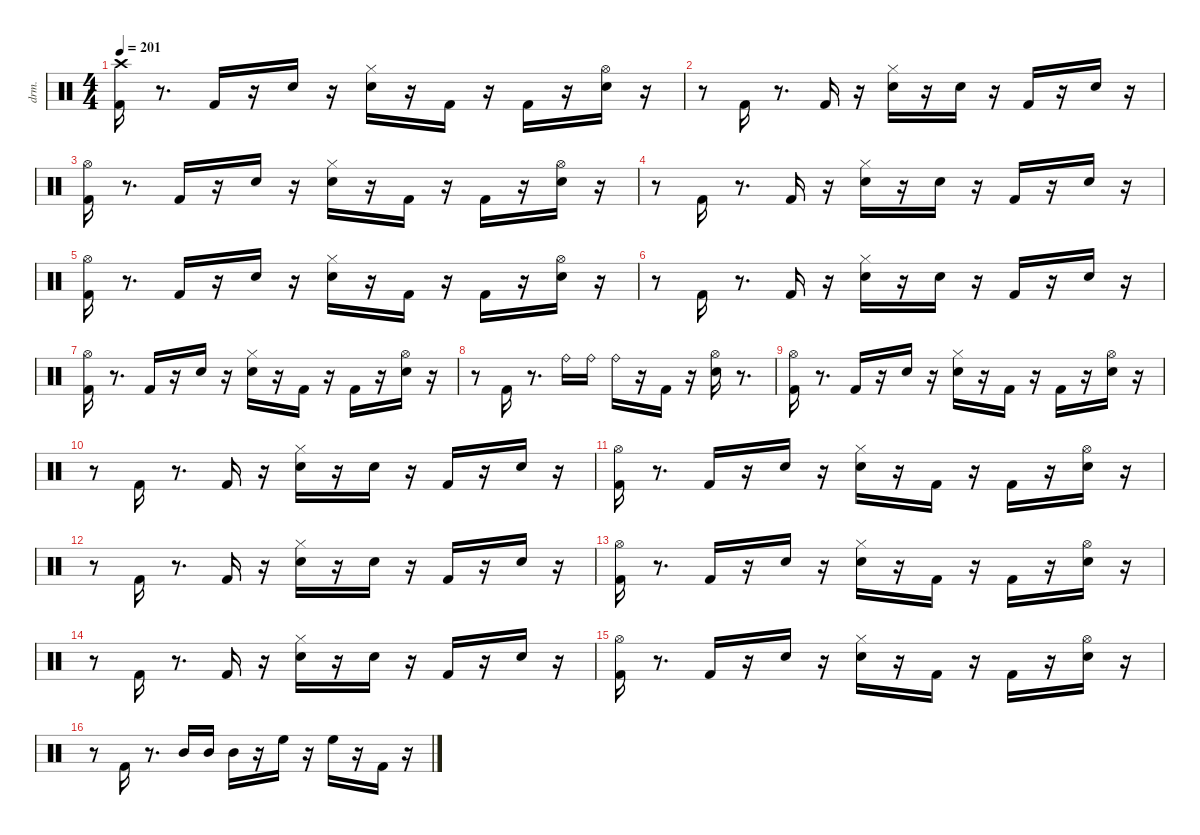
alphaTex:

\defaultSystemsLayout 4
\hideDynamics
\bracketExtendMode nobrackets
\otherSystemsTrackNameOrientation horizontal
\track ("Drums" "drm.") {instrument percussion}
\staff {score}
\articulation defaults
\ts (4 4)
\tempo 201
\clef neutral
\ks aminor
("Kick (hit) 2" "Crash high (hit)"{acc #}).16{dy fff beam Down} r.8{d beam Down} "Kick (hit) 2".16{dy f beam Up} r.16{beam Up} "Snare (hit) 2".16{dy mf beam Up} r.16{beam Up} ("Snare (hit) 2" "Hi-Hat (closed)"{acc #}).16{dy ppp beam Down} r.16{beam Down} "Kick (hit) 2".16{dy pp beam Down} r.16{beam Down} "Kick (hit) 2".16{dy ff beam Down} r.16{beam Down} ("Snare (hit) 2" "Hi-Hat (open)"{acc #}).16{beam Down} r.16{beam Down} |
r.8{beam Down} "Kick (hit) 2".16{beam Up} r.8{d beam Up} "Kick (hit) 2".16{dy mp beam Up} r.16{beam Up} ("Snare (hit) 2" "Hi-Hat (closed)"{acc #}).16{dy mf beam Down} r.16{beam Down} "Snare (hit) 2".16{dy pp beam Down} r.16{beam Down} "Kick (hit) 2".16{dy ff beam Up} r.16{beam Up} "Snare (hit) 2".16{beam Up} r.16{beam Up} |
("Kick (hit) 2" "Hi-Hat (open)"{acc #}).16{beam Down} r.8{d beam Down} "Kick (hit) 2".16{beam Up} r.16{beam Up} "Snare (hit) 2".16{dy mf beam Up} r.16{beam Up} ("Snare (hit) 2" "Hi-Hat (closed)"{acc #}).16{dy ppp beam Down} r.16{beam Down} "Kick (hit) 2".16{dy pp beam Down} r.16{beam Down} "Kick (hit) 2".16{dy ff beam Down} r.16{beam Down} ("Snare (hit) 2" "Hi-Hat (open)"{acc #}).16{beam Down} r.16{beam Down} |
r.8{beam Down} "Kick (hit) 2".16{beam Up} r.8{d beam Up} "Kick (hit) 2".16{dy mp beam Up} r.16{beam Up} ("Snare (hit) 2" "Hi-Hat (closed)"{acc #}).16{dy mf beam Down} r.16{beam Down} "Snare (hit) 2".16{dy pp beam Down} r.16{beam Down} "Kick (hit) 2".16{dy ff beam Up} r.16{beam Up} "Snare (hit) 2".16{beam Up} r.16{beam Up} |
("Kick (hit) 2" "Hi-Hat (open)"{acc #}).16{beam Down} r.8{d beam Down} "Kick (hit) 2".16{beam Up} r.16{beam Up} "Snare (hit) 2".16{dy mf beam Up} r.16{beam Up} ("Snare (hit) 2" "Hi-Hat (closed)"{acc #}).16{dy ppp beam Down} r.16{beam Down} "Kick (hit) 2".16{dy pp beam Down} r.16{beam Down} "Kick (hit) 2".16{dy ff beam Down} r.16{beam Down} ("Snare (hit) 2" "Hi-Hat (open)"{acc #}).16{beam Down} r.16{beam Down} |
r.8{beam Down} "Kick (hit) 2".16{beam Up} r.8{d beam Up} "Kick (hit) 2".16{dy mp beam Up} r.16{beam Up} ("Snare (hit) 2" "Hi-Hat (closed)"{acc #}).16{dy mf beam Down} r.16{beam Down} "Snare (hit) 2".16{dy pp beam Down} r.16{beam Down} "Kick (hit) 2".16{dy ff beam Up} r.16{beam Up} "Snare (hit) 2".16{beam Up} r.16{beam Up} |
("Kick (hit) 2" "Hi-Hat (open)"{acc #}).16{beam Down} r.8{d beam Down} "Kick (hit) 2".16{beam Up} r.16{beam Up} "Snare (hit) 2".16{dy mf beam Up} r.16{beam Up} ("Snare (hit) 2" "Hi-Hat (closed)"{acc #}).16{dy ppp beam Down} r.16{beam Down} "Kick (hit) 2".16{dy pp beam Down} r.16{beam Down} "Kick (hit) 2".16{dy ff beam Down} r.16{beam Down} ("Snare (hit) 2" "Hi-Hat (open)"{acc #}).16{beam Down} r.16{beam Down} |
r.8{beam Down} "Kick (hit) 2".16{beam Up} r.8{d beam Up} "Ride (bell)".16{dy f beam Down} "Ride (bell)".16{dy mf beam Down} "Ride (bell)".16{dy ff beam Down} r.16{beam Down} "Kick (hit) 2".16{beam Down} r.16{beam Down} ("Snare (hit) 2" "Hi-Hat (open)"{acc #}).16{beam Down} r.8{d beam Down} |
("Kick (hit) 2" "Hi-Hat (open)"{acc #}).16{beam Down} r.8{d beam Down} "Kick (hit) 2".16{beam Up} r.16{beam Up} "Snare (hit) 2".16{dy mf beam Up} r.16{beam Up} ("Snare (hit) 2" "Hi-Hat (closed)"{acc #}).16{dy ppp beam Down} r.16{beam Down} "Kick (hit) 2".16{dy pp beam Down} r.16{beam Down} "Kick (hit) 2".16{dy ff beam Down} r.16{beam Down} ("Snare (hit) 2" "Hi-Hat (open)"{acc #}).16{beam Down} r.16{beam Down} |
r.8{beam Down} "Kick (hit) 2".16{beam Up} r.8{d beam Up} "Kick (hit) 2".16{dy mp beam Up} r.16{beam Up} ("Snare (hit) 2" "Hi-Hat (closed)"{acc #}).16{dy mf beam Down} r.16{beam Down} "Snare (hit) 2".16{dy pp beam Down} r.16{beam Down} "Kick (hit) 2".16{dy ff beam Up} r.16{beam Up} "Snare (hit) 2".16{beam Up} r.16{beam Up} |
("Kick (hit) 2" "Hi-Hat (open)"{acc #}).16{beam Down} r.8{d beam Down} "Kick (hit) 2".16{beam Up} r.16{beam Up} "Snare (hit) 2".16{dy mf beam Up} r.16{beam Up} ("Snare (hit) 2" "Hi-Hat (closed)"{acc #}).16{dy ppp beam Down} r.16{beam Down} "Kick (hit) 2".16{dy pp beam Down} r.16{beam Down} "Kick (hit) 2".16{dy ff beam Down} r.16{beam Down} ("Snare (hit) 2" "Hi-Hat (open)"{acc #}).16{beam Down} r.16{beam Down} |
r.8{beam Down} "Kick (hit) 2".16{beam Up} r.8{d beam Up} "Kick (hit) 2".16{dy mp beam Up} r.16{beam Up} ("Snare (hit) 2" "Hi-Hat (closed)"{acc #}).16{dy mf beam Down} r.16{beam Down} "Snare (hit) 2".16{dy pp beam Down} r.16{beam Down} "Kick (hit) 2".16{dy ff beam Up} r.16{beam Up} "Snare (hit) 2".16{beam Up} r.16{beam Up} |
("Kick (hit) 2" "Hi-Hat (open)"{acc #}).16{beam Down} r.8{d beam Down} "Kick (hit) 2".16{beam Up} r.16{beam Up} "Snare (hit) 2".16{dy mf beam Up} r.16{beam Up} ("Snare (hit) 2" "Hi-Hat (closed)"{acc #}).16{dy ppp beam Down} r.16{beam Down} "Kick (hit) 2".16{dy pp beam Down} r.16{beam Down} "Kick (hit) 2".16{dy ff beam Down} r.16{beam Down} ("Snare (hit) 2" "Hi-Hat (open)"{acc #}).16{beam Down} r.16{beam Down} |
r.8{beam Down} "Kick (hit) 2".16{beam Up} r.8{d beam Up} "Kick (hit) 2".16{dy mp beam Up} r.16{beam Up} ("Snare (hit) 2" "Hi-Hat (closed)"{acc #}).16{dy mf beam Down} r.16{beam Down} "Snare (hit) 2".16{dy pp beam Down} r.16{beam Down} "Kick (hit) 2".16{dy ff beam Up} r.16{beam Up} "Snare (hit) 2".16{beam Up} r.16{beam Up} |
("Kick (hit) 2" "Hi-Hat (open)"{acc #}).16{beam Down} r.8{d beam Down} "Kick (hit) 2".16{beam Up} r.16{beam Up} "Snare (hit) 2".16{dy mf beam Up} r.16{beam Up} ("Snare (hit) 2" "Hi-Hat (closed)"{acc #}).16{dy ppp beam Down} r.16{beam Down} "Kick (hit) 2".16{dy pp beam Down} r.16{beam Down} "Kick (hit) 2".16{dy ff beam Down} r.16{beam Down} ("Snare (hit) 2" "Hi-Hat (open)"{acc #}).16{beam Down} r.16{beam Down} |
r.8{beam Down} "Kick (hit) 2".16{beam Up} r.8{d beam Up} "Mid Tom (hit)".16{dy f beam Up} "Mid Tom (hit)".16{dy mf beam Up} "Mid Tom (hit)".16{dy ff beam Down} r.16{beam Down} "High Floor Tom (hit)".16{beam Down} r.16{beam Down} "High Floor Tom (hit)".16{dy mf beam Down} r.16{beam Down} "Kick (hit) 2".16{beam Down} r.16{beam Down}
